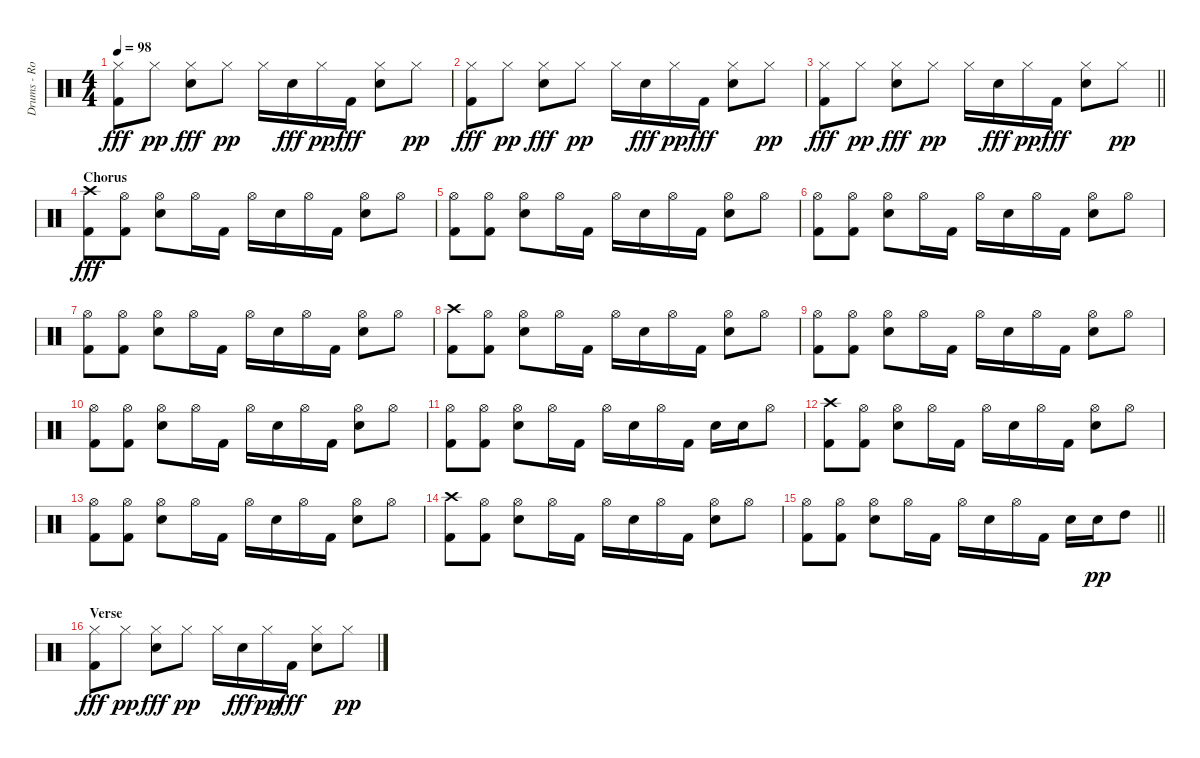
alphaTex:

\track ("Drums - Rob Bourdon" "Drums - Ro") {instrument percussion}
\staff {score}
\articulation defaults
\ts (4 4)
\tempo 98
\clef neutral
\ks c
("Hi-Hat (closed)" "Kick (hit) 2").8{dy fff} "Hi-Hat (closed)".8{dy pp} ("Hi-Hat (closed)" "Snare (hit) 2").8{dy fff} "Hi-Hat (closed)".8{dy pp} "Hi-Hat (closed)".16 "Snare (hit) 2".16{dy fff} "Hi-Hat (closed)".16{dy pp} "Kick (hit) 2".16{dy fff} ("Hi-Hat (closed)" "Snare (hit) 2").8 "Hi-Hat (closed)".8{dy pp} |
("Hi-Hat (closed)" "Kick (hit) 2").8{dy fff} "Hi-Hat (closed)".8{dy pp} ("Hi-Hat (closed)" "Snare (hit) 2").8{dy fff} "Hi-Hat (closed)".8{dy pp} "Hi-Hat (closed)".16 "Snare (hit) 2".16{dy fff} "Hi-Hat (closed)".16{dy pp} "Kick (hit) 2".16{dy fff} ("Hi-Hat (closed)" "Snare (hit) 2").8 "Hi-Hat (closed)".8{dy pp} |
\barLineRight lightlight
("Hi-Hat (closed)" "Kick (hit) 2").8{dy fff} "Hi-Hat (closed)".8{dy pp} ("Hi-Hat (closed)" "Snare (hit) 2").8{dy fff} "Hi-Hat (closed)".8{dy pp} "Hi-Hat (closed)".16 "Snare (hit) 2".16{dy fff} "Hi-Hat (closed)".16{dy pp} "Kick (hit) 2".16{dy fff} ("Hi-Hat (closed)" "Snare (hit) 2").8 "Hi-Hat (closed)".8{dy pp} |
\section ("" "Chorus")
("Crash high (hit)" "Kick (hit) 2").8{dy fff} ("Hi-Hat (open)" "Kick (hit) 2").8 ("Hi-Hat (open)" "Snare (hit) 2").8 "Hi-Hat (open)".16 "Kick (hit) 2".16 "Hi-Hat (open)".16 "Snare (hit) 2".16 "Hi-Hat (open)".16 "Kick (hit) 2".16 ("Hi-Hat (open)" "Snare (hit) 2").8 "Hi-Hat (open)".8 |
("Hi-Hat (open)" "Kick (hit) 2").8 ("Hi-Hat (open)" "Kick (hit) 2").8 ("Hi-Hat (open)" "Snare (hit) 2").8 "Hi-Hat (open)".16 "Kick (hit) 2".16 "Hi-Hat (open)".16 "Snare (hit) 2".16 "Hi-Hat (open)".16 "Kick (hit) 2".16 ("Hi-Hat (open)" "Snare (hit) 2").8 "Hi-Hat (open)".8 |
("Hi-Hat (open)" "Kick (hit) 2").8 ("Hi-Hat (open)" "Kick (hit) 2").8 ("Hi-Hat (open)" "Snare (hit) 2").8 "Hi-Hat (open)".16 "Kick (hit) 2".16 "Hi-Hat (open)".16 "Snare (hit) 2".16 "Hi-Hat (open)".16 "Kick (hit) 2".16 ("Hi-Hat (open)" "Snare (hit) 2").8 "Hi-Hat (open)".8 |
("Hi-Hat (open)" "Kick (hit) 2").8 ("Hi-Hat (open)" "Kick (hit) 2").8 ("Hi-Hat (open)" "Snare (hit) 2").8 "Hi-Hat (open)".16 "Kick (hit) 2".16 "Hi-Hat (open)".16 "Snare (hit) 2".16 "Hi-Hat (open)".16 "Kick (hit) 2".16 ("Hi-Hat (open)" "Snare (hit) 2").8 "Hi-Hat (open)".8 |
("Crash high (hit)" "Kick (hit) 2").8 ("Hi-Hat (open)" "Kick (hit) 2").8 ("Hi-Hat (open)" "Snare (hit) 2").8 "Hi-Hat (open)".16 "Kick (hit) 2".16 "Hi-Hat (open)".16 "Snare (hit) 2".16 "Hi-Hat (open)".16 "Kick (hit) 2".16 ("Hi-Hat (open)" "Snare (hit) 2").8 "Hi-Hat (open)".8 |
("Hi-Hat (open)" "Kick (hit) 2").8 ("Hi-Hat (open)" "Kick (hit) 2").8 ("Hi-Hat (open)" "Snare (hit) 2").8 "Hi-Hat (open)".16 "Kick (hit) 2".16 "Hi-Hat (open)".16 "Snare (hit) 2".16 "Hi-Hat (open)".16 "Kick (hit) 2".16 ("Hi-Hat (open)" "Snare (hit) 2").8 "Hi-Hat (open)".8 |
("Hi-Hat (open)" "Kick (hit) 2").8 ("Hi-Hat (open)" "Kick (hit) 2").8 ("Hi-Hat (open)" "Snare (hit) 2").8 "Hi-Hat (open)".16 "Kick (hit) 2".16 "Hi-Hat (open)".16 "Snare (hit) 2".16 "Hi-Hat (open)".16 "Kick (hit) 2".16 ("Hi-Hat (open)" "Snare (hit) 2").8 "Hi-Hat (open)".8 |
("Hi-Hat (open)" "Kick (hit) 2").8 ("Hi-Hat (open)" "Kick (hit) 2").8 ("Hi-Hat (open)" "Snare (hit) 2").8 "Hi-Hat (open)".16 "Kick (hit) 2".16 "Hi-Hat (open)".16 "Snare (hit) 2".16 "Hi-Hat (open)".16 "Kick (hit) 2".16 "Snare (hit) 2".16 "Snare (hit) 2".16 "Hi-Hat (open)".8 |
("Crash high (hit)" "Kick (hit) 2").8 ("Hi-Hat (open)" "Kick (hit) 2").8 ("Hi-Hat (open)" "Snare (hit) 2").8 "Hi-Hat (open)".16 "Kick (hit) 2".16 "Hi-Hat (open)".16 "Snare (hit) 2".16 "Hi-Hat (open)".16 "Kick (hit) 2".16 ("Hi-Hat (open)" "Snare (hit) 2").8 "Hi-Hat (open)".8 |
("Hi-Hat (open)" "Kick (hit) 2").8 ("Hi-Hat (open)" "Kick (hit) 2").8 ("Hi-Hat (open)" "Snare (hit) 2").8 "Hi-Hat (open)".16 "Kick (hit) 2".16 "Hi-Hat (open)".16 "Snare (hit) 2".16 "Hi-Hat (open)".16 "Kick (hit) 2".16 ("Hi-Hat (open)" "Snare (hit) 2").8 "Hi-Hat (open)".8 |
("Crash high (hit)" "Kick (hit) 2").8 ("Hi-Hat (open)" "Kick (hit) 2").8 ("Hi-Hat (open)" "Snare (hit) 2").8 "Hi-Hat (open)".16 "Kick (hit) 2".16 "Hi-Hat (open)".16 "Snare (hit) 2".16 "Hi-Hat (open)".16 "Kick (hit) 2".16 ("Hi-Hat (open)" "Snare (hit) 2").8 "Hi-Hat (open)".8 |
\barLineRight lightlight
("Hi-Hat (open)" "Kick (hit) 2").8 ("Hi-Hat (open)" "Kick (hit) 2").8 ("Hi-Hat (open)" "Snare (hit) 2").8 "Hi-Hat (open)".16 "Kick (hit) 2".16 "Hi-Hat (open)".16 "Snare (hit) 2".16 "Hi-Hat (open)".16 "Kick (hit) 2".16 "Snare (hit) 2".16 "Snare (hit) 2".16{dy pp} "High Tom (hit)".8 |
\section ("" "Verse")
("Hi-Hat (closed)" "Kick (hit) 2").8{dy fff} "Hi-Hat (closed)".8{dy pp} ("Hi-Hat (closed)" "Snare (hit) 2").8{dy fff} "Hi-Hat (closed)".8{dy pp} "Hi-Hat (closed)".16 "Snare (hit) 2".16{dy fff} "Hi-Hat (closed)".16{dy pp} "Kick (hit) 2".16{dy fff} ("Hi-Hat (closed)" "Snare (hit) 2").8 "Hi-Hat (closed)".8{dy pp}
